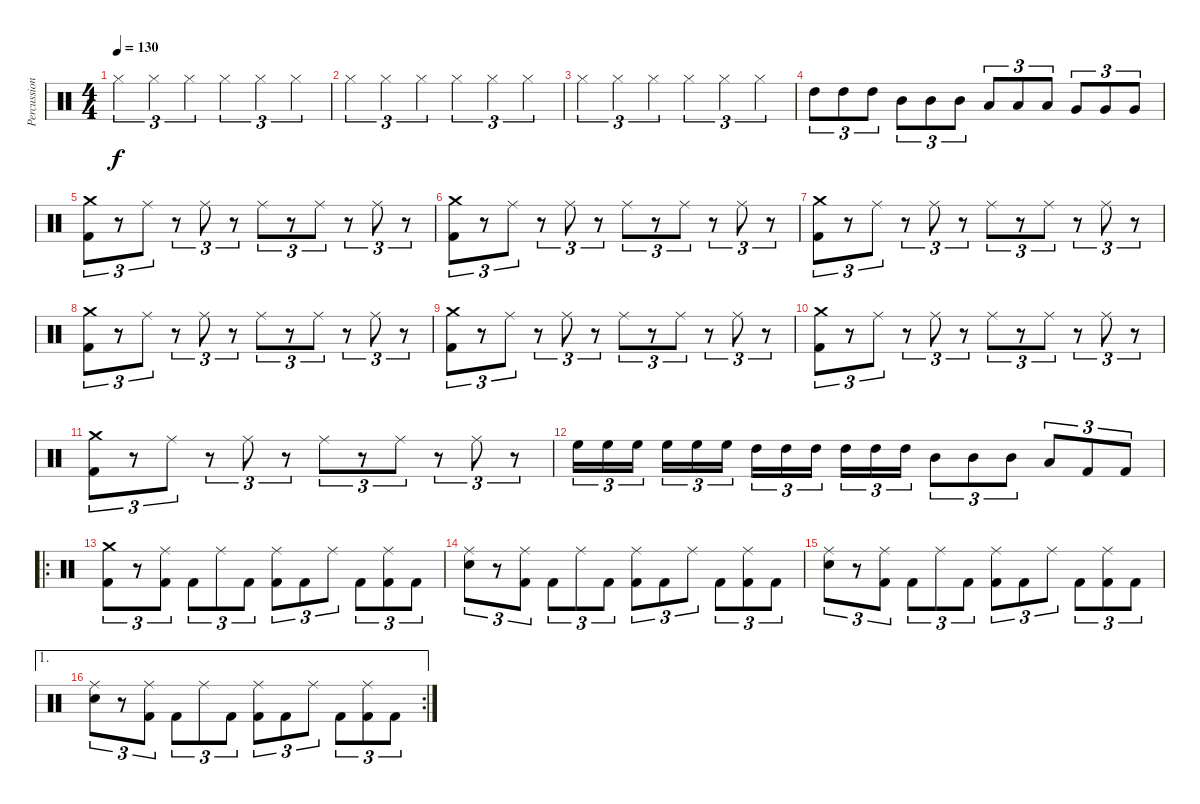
\track ("Percussion" "Percussion") {instrument percussion}
\staff {score}
\articulation defaults
\ts (4 4)
\tempo 130
\clef neutral
\ks c "Hi-Hat (closed)".4{tu (3 2) dy f volume 0} "Hi-Hat (closed)".4{tu (3 2) volume 13} "Hi-Hat (closed)".4{tu (3 2)} "Hi-Hat (closed)".4{tu (3 2)} "Hi-Hat (closed)".4{tu (3 2)} "Hi-Hat (closed)".4{tu (3 2)}
|
"Hi-Hat (closed)".4{tu (3 2)} "Hi-Hat (closed)".4{tu (3 2)} "Hi-Hat (closed)".4{tu (3 2)} "Hi-Hat (closed)".4{tu (3 2)} "Hi-Hat (closed)".4{tu (3 2)} "Hi-Hat (closed)".4{tu (3 2)} |
"Hi-Hat (closed)".4{tu (3 2)} "Hi-Hat (closed)".4{tu (3 2)} "Hi-Hat (closed)".4{tu (3 2)} "Hi-Hat (closed)".4{tu (3 2)} "Hi-Hat (closed)".4{tu (3 2)} "Hi-Hat (closed)".4{tu (3 2)} |
"High Tom (hit)".8{tu (3 2)} "High Tom (hit)".8{tu (3 2)} "High Tom (hit)".8{tu (3 2)} "Mid Tom (hit)".8{tu (3 2)} "Mid Tom (hit)".8{tu (3 2)} "Mid Tom (hit)".8{tu (3 2)} "Low Tom (hit)".8{tu (3 2)} "Low Tom (hit)".8{tu (3 2)} "Low Tom (hit)".8{tu (3 2)} "Very Low Tom (hit)".8{tu (3 2)} "Very Low Tom (hit)".8{tu (3 2)} "Very Low Tom (hit)".8{tu (3 2)} |
("Crash medium (hit)" "Kick (hit) 2").8{tu (3 2)} r.8{tu (3 2)} "Ride (middle)".8{tu (3 2)} r.8{tu (3 2)} "Ride (middle)".8{tu (3 2)} r.8{tu (3 2)} "Ride (middle)".8{tu (3 2)} r.8{tu (3 2)} "Ride (middle)".8{tu (3 2)} r.8{tu (3 2)} "Ride (middle)".8{tu (3 2)} r.8{tu (3 2)} |
("Crash medium (hit)" "Kick (hit) 2").8{tu (3 2)} r.8{tu (3 2)} "Ride (middle)".8{tu (3 2)} r.8{tu (3 2)} "Ride (middle)".8{tu (3 2)} r.8{tu (3 2)} "Ride (middle)".8{tu (3 2)} r.8{tu (3 2)} "Ride (middle)".8{tu (3 2)} r.8{tu (3 2)} "Ride (middle)".8{tu (3 2)} r.8{tu (3 2)} |
("Crash medium (hit)" "Kick (hit) 2").8{tu (3 2)} r.8{tu (3 2)} "Ride (middle)".8{tu (3 2)} r.8{tu (3 2)} "Ride (middle)".8{tu (3 2)} r.8{tu (3 2)} "Ride (middle)".8{tu (3 2)} r.8{tu (3 2)} "Ride (middle)".8{tu (3 2)} r.8{tu (3 2)} "Ride (middle)".8{tu (3 2)} r.8{tu (3 2)} |
("Crash medium (hit)" "Kick (hit) 2").8{tu (3 2)} r.8{tu (3 2)} "Ride (middle)".8{tu (3 2)} r.8{tu (3 2)} "Ride (middle)".8{tu (3 2)} r.8{tu (3 2)} "Ride (middle)".8{tu (3 2)} r.8{tu (3 2)} "Ride (middle)".8{tu (3 2)} r.8{tu (3 2)} "Ride (middle)".8{tu (3 2)} r.8{tu (3 2)} |
("Crash medium (hit)" "Kick (hit) 2").8{tu (3 2)} r.8{tu (3 2)} "Ride (middle)".8{tu (3 2)} r.8{tu (3 2)} "Ride (middle)".8{tu (3 2)} r.8{tu (3 2)} "Ride (middle)".8{tu (3 2)} r.8{tu (3 2)} "Ride (middle)".8{tu (3 2)} r.8{tu (3 2)} "Ride (middle)".8{tu (3 2)} r.8{tu (3 2)} |
("Crash medium (hit)" "Kick (hit) 2").8{tu (3 2)} r.8{tu (3 2)} "Ride (middle)".8{tu (3 2)} r.8{tu (3 2)} "Ride (middle)".8{tu (3 2)} r.8{tu (3 2)} "Ride (middle)".8{tu (3 2)} r.8{tu (3 2)} "Ride (middle)".8{tu (3 2)} r.8{tu (3 2)} "Ride (middle)".8{tu (3 2)} r.8{tu (3 2)} |
("Crash medium (hit)" "Kick (hit) 2").8{tu (3 2)} r.8{tu (3 2)} "Ride (middle)".8{tu (3 2)} r.8{tu (3 2)} "Ride (middle)".8{tu (3 2)} r.8{tu (3 2)} "Ride (middle)".8{tu (3 2)} r.8{tu (3 2)} "Ride (middle)".8{tu (3 2)} r.8{tu (3 2)} "Ride (middle)".8{tu (3 2)} r.8{tu (3 2)} |
"High Floor Tom (hit)".16{tu (3 2)} "High Floor Tom (hit)".16{tu (3 2)} "High Floor Tom (hit)".16{tu (3 2)} "High Floor Tom (hit)".16{tu (3 2)} "High Floor Tom (hit)".16{tu (3 2)} "High Floor Tom (hit)".16{tu (3 2)} "High Tom (hit)".16{tu (3 2)} "High Tom (hit)".16{tu (3 2)} "High Tom (hit)".16{tu (3 2)} "High Tom (hit)".16{tu (3 2)} "High Tom (hit)".16{tu (3 2)} "High Tom (hit)".16{tu (3 2)} "Mid Tom (hit)".8{tu (3 2)} "Mid Tom (hit)".8{tu (3 2)} "Mid Tom (hit)".8{tu (3 2)} "Low Tom (hit)".8{tu (3 2)} "Kick (hit) 2".8{tu (3 2)} "Kick (hit) 2".8{tu (3 2)} |
\ro
("Crash medium (hit)" "Kick (hit) 2").8{tu (3 2)} r.8{tu (3 2)} ("Ride (middle)" "Kick (hit) 2").8{tu (3 2)} "Kick (hit) 2".8{tu (3 2)} "Ride (middle)".8{tu (3 2)} "Kick (hit) 2".8{tu (3 2)} ("Ride (middle)" "Kick (hit) 2").8{tu (3 2)} "Kick (hit) 2".8{tu (3 2)} "Ride (middle)".8{tu (3 2)} "Kick (hit) 2".8{tu (3 2)} ("Ride (middle)" "Kick (hit) 2").8{tu (3 2)} "Kick (hit) 2".8{tu (3 2)} |
("Ride (middle)" "Electric Snare (hit)").8{tu (3 2)} r.8{tu (3 2)} ("Ride (middle)" "Kick (hit) 2").8{tu (3 2)} "Kick (hit) 2".8{tu (3 2)} "Ride (middle)".8{tu (3 2)} "Kick (hit) 2".8{tu (3 2)} ("Ride (middle)" "Kick (hit) 2").8{tu (3 2)} "Kick (hit) 2".8{tu (3 2)} "Ride (middle)".8{tu (3 2)} "Kick (hit) 2".8{tu (3 2)} ("Ride (middle)" "Kick (hit) 2").8{tu (3 2)} "Kick (hit) 2".8{tu (3 2)} |
("Ride (middle)" "Electric Snare (hit)").8{tu (3 2)} r.8{tu (3 2)} ("Ride (middle)" "Kick (hit) 2").8{tu (3 2)} "Kick (hit) 2".8{tu (3 2)} "Ride (middle)".8{tu (3 2)} "Kick (hit) 2".8{tu (3 2)} ("Ride (middle)" "Kick (hit) 2").8{tu (3 2)} "Kick (hit) 2".8{tu (3 2)} "Ride (middle)".8{tu (3 2)} "Kick (hit) 2".8{tu (3 2)} ("Ride (middle)" "Kick (hit) 2").8{tu (3 2)} "Kick (hit) 2".8{tu (3 2)} |
\ae 1
\rc 2
("Ride (middle)" "Electric Snare (hit)").8{tu (3 2)} r.8{tu (3 2)} ("Ride (middle)" "Kick (hit) 2").8{tu (3 2)} "Kick (hit) 2".8{tu (3 2)} "Ride (middle)".8{tu (3 2)} "Kick (hit) 2".8{tu (3 2)} ("Ride (middle)" "Kick (hit) 2").8{tu (3 2)} "Kick (hit) 2".8{tu (3 2)} "Ride (middle)".8{tu (3 2)} "Kick (hit) 2".8{tu (3 2)} ("Ride (middle)" "Kick (hit) 2").8{tu (3 2)} "Kick (hit) 2".8{tu (3 2)}
